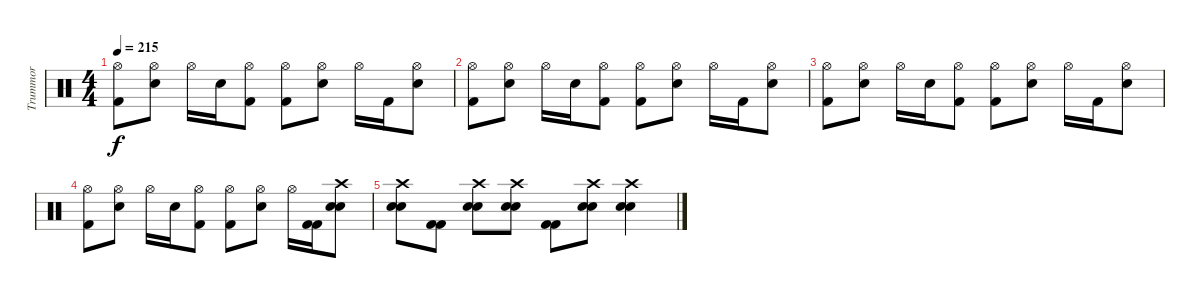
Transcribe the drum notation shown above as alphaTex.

\track ("Trummor" "Trummor") {instrument percussion}
\staff {score}
\articulation defaults
\ts (4 4)
\tempo 215
\clef neutral
\ks c
("Hi-Hat (open)" "Kick (hit) 2").8{dy f} ("Hi-Hat (open)" "Electric Snare (hit)").8 "Hi-Hat (open)".16 "Electric Snare (hit)".16 ("Hi-Hat (open)" "Kick (hit) 2").8 ("Hi-Hat (open)" "Kick (hit) 2").8 ("Hi-Hat (open)" "Electric Snare (hit)").8 "Hi-Hat (open)".16 "Kick (hit) 2".16 ("Hi-Hat (open)" "Electric Snare (hit)").8 |
("Hi-Hat (open)" "Kick (hit) 2").8 ("Hi-Hat (open)" "Electric Snare (hit)").8 "Hi-Hat (open)".16 "Electric Snare (hit)".16 ("Hi-Hat (open)" "Kick (hit) 2").8 ("Hi-Hat (open)" "Kick (hit) 2").8 ("Hi-Hat (open)" "Electric Snare (hit)").8 "Hi-Hat (open)".16 "Kick (hit) 2".16 ("Hi-Hat (open)" "Electric Snare (hit)").8 |
("Hi-Hat (open)" "Kick (hit) 2").8 ("Hi-Hat (open)" "Electric Snare (hit)").8 "Hi-Hat (open)".16 "Electric Snare (hit)".16 ("Hi-Hat (open)" "Kick (hit) 2").8 ("Hi-Hat (open)" "Kick (hit) 2").8 ("Hi-Hat (open)" "Electric Snare (hit)").8 "Hi-Hat (open)".16 "Kick (hit) 2".16 ("Hi-Hat (open)" "Electric Snare (hit)").8 |
("Hi-Hat (open)" "Kick (hit) 2").8 ("Hi-Hat (open)" "Electric Snare (hit)").8 "Hi-Hat (open)".16 "Electric Snare (hit)".16 ("Hi-Hat (open)" "Kick (hit) 2").8 ("Hi-Hat (open)" "Kick (hit) 2").8 ("Hi-Hat (open)" "Electric Snare (hit)").8 "Hi-Hat (open)".16 ("Kick (hit) 2" "Kick (hit) 2").16 ("Crash high (hit)" "Electric Snare (hit)" "Electric Snare (hit)").8 |
("Crash high (hit)" "Electric Snare (hit)" "Electric Snare (hit)").8 ("Kick (hit) 2" "Kick (hit) 2").8 ("Crash high (hit)" "Electric Snare (hit)" "Electric Snare (hit)").8 ("Crash high (hit)" "Electric Snare (hit)" "Electric Snare (hit)").8 ("Kick (hit) 2" "Kick (hit) 2").8 ("Crash high (hit)" "Electric Snare (hit)" "Electric Snare (hit)").8 ("Crash high (hit)" "Electric Snare (hit)" "Electric Snare (hit)").4
